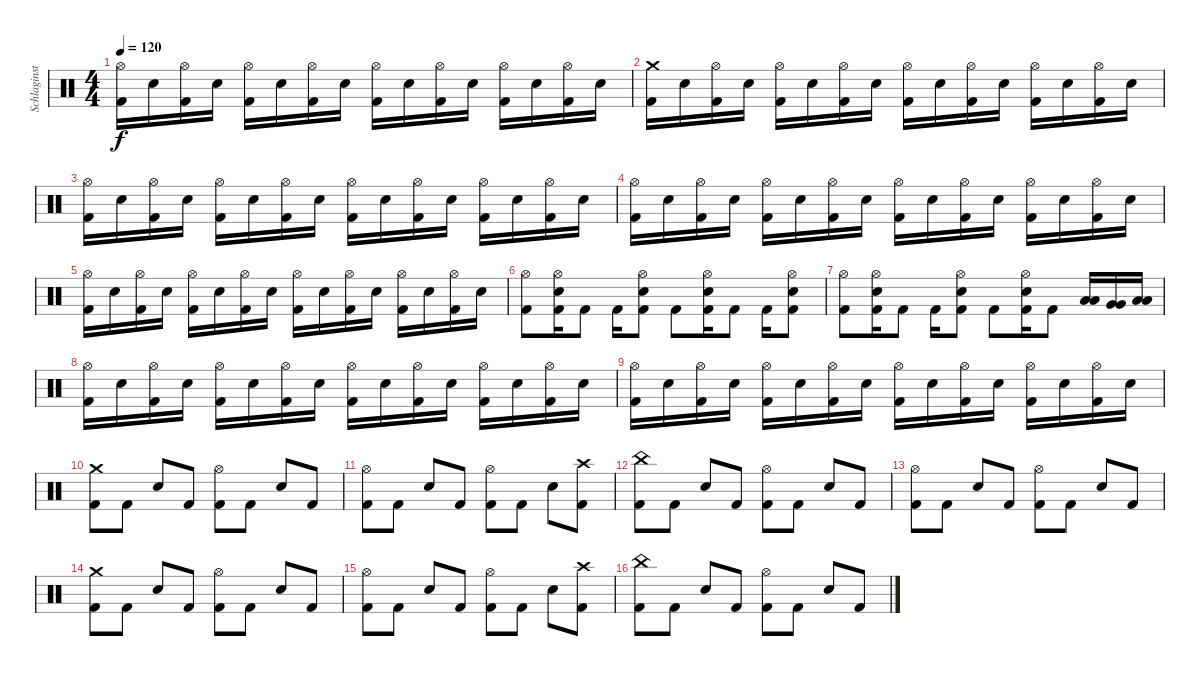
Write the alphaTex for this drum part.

\track ("Schlaginstrumente - Auswahl" "Schlaginst") {instrument percussion}
\staff {score}
\articulation defaults
\ts (4 4)
\tempo 120
\clef neutral
\ks c
("Hi-Hat (open)" "Kick (hit) 2").16{dy f} "Electric Snare (hit)".16 ("Hi-Hat (open)" "Kick (hit) 2").16 "Electric Snare (hit)".16 ("Hi-Hat (open)" "Kick (hit) 2").16 "Electric Snare (hit)".16 ("Hi-Hat (open)" "Kick (hit) 2").16 "Electric Snare (hit)".16 ("Hi-Hat (open)" "Kick (hit) 2").16 "Electric Snare (hit)".16 ("Hi-Hat (open)" "Kick (hit) 2").16 "Electric Snare (hit)".16 ("Hi-Hat (open)" "Kick (hit) 2").16 "Electric Snare (hit)".16 ("Hi-Hat (open)" "Kick (hit) 2").16 "Electric Snare (hit)".16 |
("Crash medium (hit)" "Kick (hit) 2").16 "Electric Snare (hit)".16 ("Hi-Hat (open)" "Kick (hit) 2").16 "Electric Snare (hit)".16 ("Hi-Hat (open)" "Kick (hit) 2").16 "Electric Snare (hit)".16 ("Hi-Hat (open)" "Kick (hit) 2").16 "Electric Snare (hit)".16 ("Hi-Hat (open)" "Kick (hit) 2").16 "Electric Snare (hit)".16 ("Hi-Hat (open)" "Kick (hit) 2").16 "Electric Snare (hit)".16 ("Hi-Hat (open)" "Kick (hit) 2").16 "Electric Snare (hit)".16 ("Hi-Hat (open)" "Kick (hit) 2").16 "Electric Snare (hit)".16 |
("Hi-Hat (open)" "Kick (hit) 2").16 "Electric Snare (hit)".16 ("Hi-Hat (open)" "Kick (hit) 2").16 "Electric Snare (hit)".16 ("Hi-Hat (open)" "Kick (hit) 2").16 "Electric Snare (hit)".16 ("Hi-Hat (open)" "Kick (hit) 2").16 "Electric Snare (hit)".16 ("Hi-Hat (open)" "Kick (hit) 2").16 "Electric Snare (hit)".16 ("Hi-Hat (open)" "Kick (hit) 2").16 "Electric Snare (hit)".16 ("Hi-Hat (open)" "Kick (hit) 2").16 "Electric Snare (hit)".16 ("Hi-Hat (open)" "Kick (hit) 2").16 "Electric Snare (hit)".16 |
("Hi-Hat (open)" "Kick (hit) 2").16 "Electric Snare (hit)".16 ("Hi-Hat (open)" "Kick (hit) 2").16 "Electric Snare (hit)".16 ("Hi-Hat (open)" "Kick (hit) 2").16 "Electric Snare (hit)".16 ("Hi-Hat (open)" "Kick (hit) 2").16 "Electric Snare (hit)".16 ("Hi-Hat (open)" "Kick (hit) 2").16 "Electric Snare (hit)".16 ("Hi-Hat (open)" "Kick (hit) 2").16 "Electric Snare (hit)".16 ("Hi-Hat (open)" "Kick (hit) 2").16 "Electric Snare (hit)".16 ("Hi-Hat (open)" "Kick (hit) 2").16 "Electric Snare (hit)".16 |
("Hi-Hat (open)" "Kick (hit) 2").16 "Electric Snare (hit)".16 ("Hi-Hat (open)" "Kick (hit) 2").16 "Electric Snare (hit)".16 ("Hi-Hat (open)" "Kick (hit) 2").16 "Electric Snare (hit)".16 ("Hi-Hat (open)" "Kick (hit) 2").16 "Electric Snare (hit)".16 ("Hi-Hat (open)" "Kick (hit) 2").16 "Electric Snare (hit)".16 ("Hi-Hat (open)" "Kick (hit) 2").16 "Electric Snare (hit)".16 ("Hi-Hat (open)" "Kick (hit) 2").16 "Electric Snare (hit)".16 ("Hi-Hat (open)" "Kick (hit) 2").16 "Electric Snare (hit)".16 |
("Hi-Hat (open)" "Kick (hit) 2").8 ("Hi-Hat (open)" "Electric Snare (hit)" "Kick (hit) 2").16 "Kick (hit) 2".8 "Kick (hit) 2".16 ("Hi-Hat (open)" "Electric Snare (hit)" "Kick (hit) 2").8 "Kick (hit) 2".8 ("Hi-Hat (open)" "Electric Snare (hit)" "Kick (hit) 2").16 "Kick (hit) 2".8 "Kick (hit) 2".16 ("Hi-Hat (open)" "Electric Snare (hit)" "Kick (hit) 2").8 |
("Hi-Hat (open)" "Kick (hit) 2").8 ("Hi-Hat (open)" "Electric Snare (hit)" "Kick (hit) 2").16 "Kick (hit) 2".8 "Kick (hit) 2".16 ("Hi-Hat (open)" "Electric Snare (hit)" "Kick (hit) 2").8 "Kick (hit) 2".8 ("Hi-Hat (open)" "Electric Snare (hit)" "Kick (hit) 2").16 "Kick (hit) 2".8 ("Low Tom (hit)" "Low Tom (hit)").16 ("Very Low Tom (hit)" "Very Low Tom (hit)").16 ("Low Floor Tom (hit)" "Low Floor Tom (hit)").16 |
("Hi-Hat (open)" "Kick (hit) 2").16 "Electric Snare (hit)".16 ("Hi-Hat (open)" "Kick (hit) 2").16 "Electric Snare (hit)".16 ("Hi-Hat (open)" "Kick (hit) 2").16 "Electric Snare (hit)".16 ("Hi-Hat (open)" "Kick (hit) 2").16 "Electric Snare (hit)".16 ("Hi-Hat (open)" "Kick (hit) 2").16 "Electric Snare (hit)".16 ("Hi-Hat (open)" "Kick (hit) 2").16 "Electric Snare (hit)".16 ("Hi-Hat (open)" "Kick (hit) 2").16 "Electric Snare (hit)".16 ("Hi-Hat (open)" "Kick (hit) 2").16 "Electric Snare (hit)".16 |
("Hi-Hat (open)" "Kick (hit) 2").16 "Electric Snare (hit)".16 ("Hi-Hat (open)" "Kick (hit) 2").16 "Electric Snare (hit)".16 ("Hi-Hat (open)" "Kick (hit) 2").16 "Electric Snare (hit)".16 ("Hi-Hat (open)" "Kick (hit) 2").16 "Electric Snare (hit)".16 ("Hi-Hat (open)" "Kick (hit) 2").16 "Electric Snare (hit)".16 ("Hi-Hat (open)" "Kick (hit) 2").16 "Electric Snare (hit)".16 ("Hi-Hat (open)" "Kick (hit) 2").16 "Electric Snare (hit)".16 ("Hi-Hat (open)" "Kick (hit) 2").16 "Electric Snare (hit)".16 |
("Crash medium (hit)" "Kick (hit) 2").8 "Kick (hit) 2".8 "Electric Snare (hit)".8 "Kick (hit) 2".8 ("Hi-Hat (open)" "Kick (hit) 2").8 "Kick (hit) 2".8 "Electric Snare (hit)".8 "Kick (hit) 2".8 |
("Hi-Hat (open)" "Kick (hit) 2").8 "Kick (hit) 2".8 "Electric Snare (hit)".8 "Kick (hit) 2".8 ("Hi-Hat (open)" "Kick (hit) 2").8 "Kick (hit) 2".8 "Electric Snare (hit)".8 ("Crash high (hit)" "Kick (hit) 2").8 |
("China (hit)" "Kick (hit) 2").8 "Kick (hit) 2".8 "Electric Snare (hit)".8 "Kick (hit) 2".8 ("Hi-Hat (open)" "Kick (hit) 2").8 "Kick (hit) 2".8 "Electric Snare (hit)".8 "Kick (hit) 2".8 |
("Hi-Hat (open)" "Kick (hit) 2").8 "Kick (hit) 2".8 "Electric Snare (hit)".8 "Kick (hit) 2".8 ("Hi-Hat (open)" "Kick (hit) 2").8 "Kick (hit) 2".8 "Electric Snare (hit)".8 "Kick (hit) 2".8 |
("Crash medium (hit)" "Kick (hit) 2").8 "Kick (hit) 2".8 "Electric Snare (hit)".8 "Kick (hit) 2".8 ("Hi-Hat (open)" "Kick (hit) 2").8 "Kick (hit) 2".8 "Electric Snare (hit)".8 "Kick (hit) 2".8 |
("Hi-Hat (open)" "Kick (hit) 2").8 "Kick (hit) 2".8 "Electric Snare (hit)".8 "Kick (hit) 2".8 ("Hi-Hat (open)" "Kick (hit) 2").8 "Kick (hit) 2".8 "Electric Snare (hit)".8 ("Crash high (hit)" "Kick (hit) 2").8 |
("China (hit)" "Kick (hit) 2").8 "Kick (hit) 2".8 "Electric Snare (hit)".8 "Kick (hit) 2".8 ("Hi-Hat (open)" "Kick (hit) 2").8 "Kick (hit) 2".8 "Electric Snare (hit)".8 "Kick (hit) 2".8
